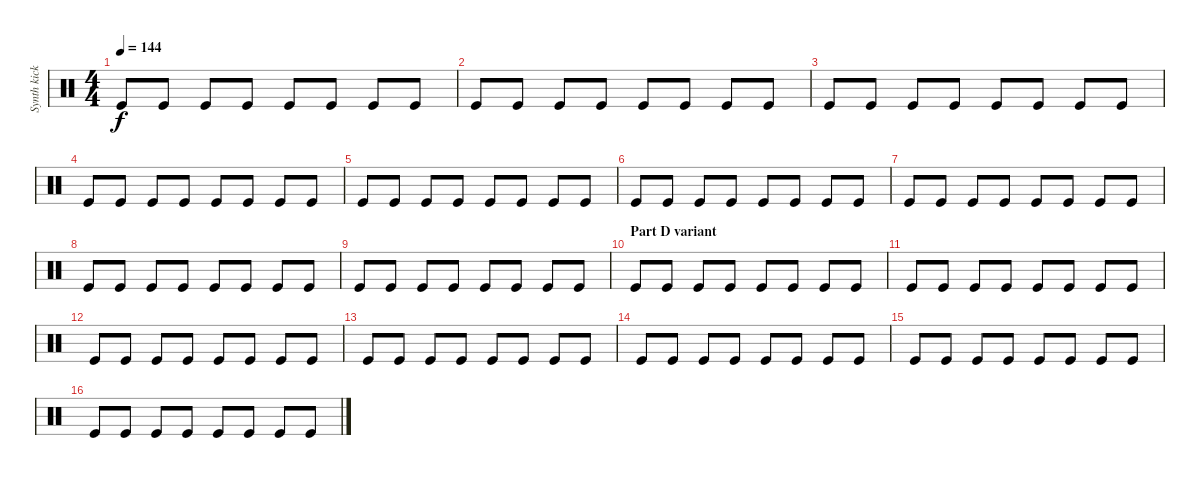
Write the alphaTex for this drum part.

\track ("Synth kick loop" "Synth kick") {instrument percussion}
\staff {score}
\articulation defaults
\ts (4 4)
\tempo 144
\clef neutral
\ks c "Kick (hit)".8{dy f} "Kick (hit)".8 "Kick (hit)".8 "Kick (hit)".8 "Kick (hit)".8 "Kick (hit)".8 "Kick (hit)".8 "Kick (hit)".8
|
"Kick (hit)".8 "Kick (hit)".8 "Kick (hit)".8 "Kick (hit)".8 "Kick (hit)".8 "Kick (hit)".8 "Kick (hit)".8 "Kick (hit)".8 |
"Kick (hit)".8 "Kick (hit)".8 "Kick (hit)".8 "Kick (hit)".8 "Kick (hit)".8 "Kick (hit)".8 "Kick (hit)".8 "Kick (hit)".8 |
"Kick (hit)".8 "Kick (hit)".8 "Kick (hit)".8 "Kick (hit)".8 "Kick (hit)".8 "Kick (hit)".8 "Kick (hit)".8 "Kick (hit)".8 |
"Kick (hit)".8 "Kick (hit)".8 "Kick (hit)".8 "Kick (hit)".8 "Kick (hit)".8 "Kick (hit)".8 "Kick (hit)".8 "Kick (hit)".8 |
"Kick (hit)".8 "Kick (hit)".8 "Kick (hit)".8 "Kick (hit)".8 "Kick (hit)".8 "Kick (hit)".8 "Kick (hit)".8 "Kick (hit)".8 |
"Kick (hit)".8 "Kick (hit)".8 "Kick (hit)".8 "Kick (hit)".8 "Kick (hit)".8 "Kick (hit)".8 "Kick (hit)".8 "Kick (hit)".8 |
"Kick (hit)".8 "Kick (hit)".8 "Kick (hit)".8 "Kick (hit)".8 "Kick (hit)".8 "Kick (hit)".8 "Kick (hit)".8 "Kick (hit)".8 |
"Kick (hit)".8 "Kick (hit)".8 "Kick (hit)".8 "Kick (hit)".8 "Kick (hit)".8 "Kick (hit)".8 "Kick (hit)".8 "Kick (hit)".8 |
\section ("" "Part D variant")
"Kick (hit)".8 "Kick (hit)".8 "Kick (hit)".8 "Kick (hit)".8 "Kick (hit)".8 "Kick (hit)".8 "Kick (hit)".8 "Kick (hit)".8 |
"Kick (hit)".8 "Kick (hit)".8 "Kick (hit)".8 "Kick (hit)".8 "Kick (hit)".8 "Kick (hit)".8 "Kick (hit)".8 "Kick (hit)".8 |
"Kick (hit)".8 "Kick (hit)".8 "Kick (hit)".8 "Kick (hit)".8 "Kick (hit)".8 "Kick (hit)".8 "Kick (hit)".8 "Kick (hit)".8 |
"Kick (hit)".8 "Kick (hit)".8 "Kick (hit)".8 "Kick (hit)".8 "Kick (hit)".8 "Kick (hit)".8 "Kick (hit)".8 "Kick (hit)".8 |
"Kick (hit)".8 "Kick (hit)".8 "Kick (hit)".8 "Kick (hit)".8 "Kick (hit)".8 "Kick (hit)".8 "Kick (hit)".8 "Kick (hit)".8 |
"Kick (hit)".8 "Kick (hit)".8 "Kick (hit)".8 "Kick (hit)".8 "Kick (hit)".8 "Kick (hit)".8 "Kick (hit)".8 "Kick (hit)".8 |
"Kick (hit)".8 "Kick (hit)".8 "Kick (hit)".8 "Kick (hit)".8 "Kick (hit)".8 "Kick (hit)".8 "Kick (hit)".8 "Kick (hit)".8
